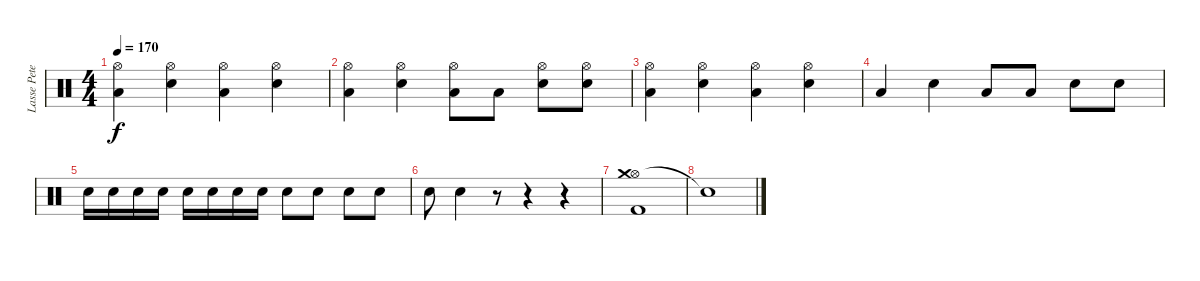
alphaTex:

\track ("Lasse Peterson" "Lasse Pete") {instrument percussion}
\staff {score}
\articulation defaults
\ts (4 4)
\tempo 170
\clef neutral
\ks c
("Hi-Hat (open)" "Low Floor Tom (hit)").4{dy f} ("Hi-Hat (open)" "Snare (hit) 2").4 ("Hi-Hat (open)" "Low Floor Tom (hit)").4 ("Hi-Hat (open)" "Snare (hit) 2").4 |
("Hi-Hat (open)" "Low Floor Tom (hit)").4 ("Hi-Hat (open)" "Snare (hit) 2").4 ("Hi-Hat (open)" "Low Floor Tom (hit)").8 "Low Floor Tom (hit)".8 ("Hi-Hat (open)" "Snare (hit) 2").8 ("Hi-Hat (open)" "Snare (hit) 2").8 |
("Hi-Hat (open)" "Low Floor Tom (hit)").4 ("Hi-Hat (open)" "Snare (hit) 2").4 ("Hi-Hat (open)" "Low Floor Tom (hit)").4 ("Hi-Hat (open)" "Snare (hit) 2").4 |
"Low Floor Tom (hit)".4 "Snare (hit) 2".4 "Low Floor Tom (hit)".8 "Low Floor Tom (hit)".8 "Snare (hit) 2".8 "Snare (hit) 2".8 |
"Snare (hit) 2".16 "Snare (hit) 2".16 "Snare (hit) 2".16 "Snare (hit) 2".16 "Snare (hit) 2".16 "Snare (hit) 2".16 "Snare (hit) 2".16 "Snare (hit) 2".16 "Snare (hit) 2".8 "Snare (hit) 2".8 "Snare (hit) 2".8 "Snare (hit) 2".8 |
"Snare (hit) 2".8 "Snare (hit) 2".4 r.8 r.4 r.4 |
("Hi-Hat (open)" "Kick (hit) 2" "Crash medium (hit)").1 |
"Snare (hit)"{t}.1
